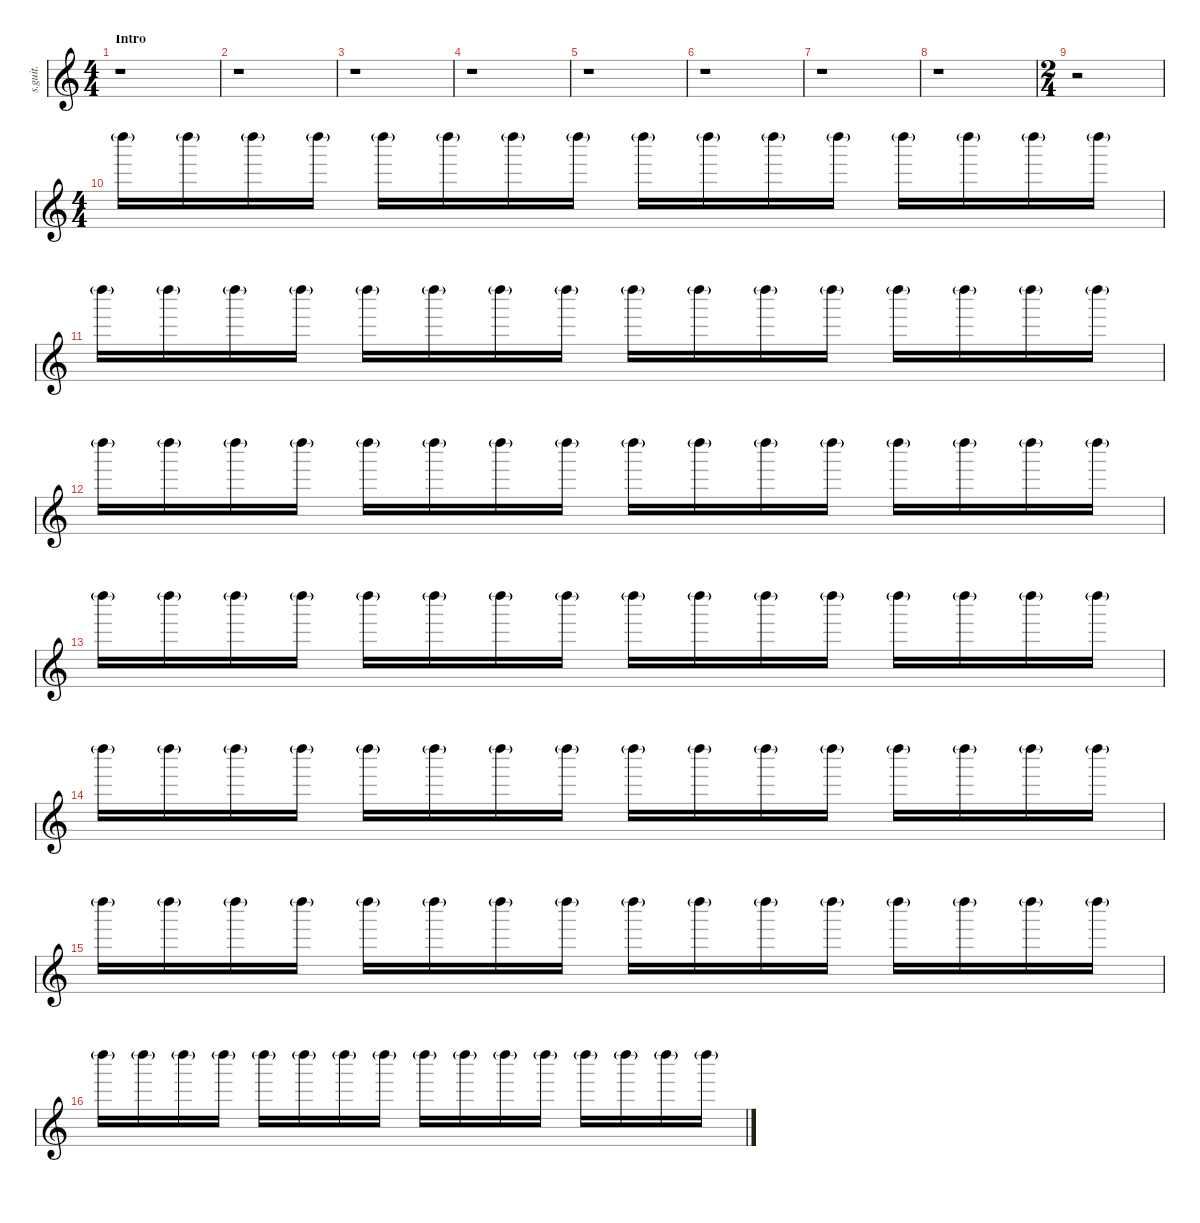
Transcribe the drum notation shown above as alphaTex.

\defaultSystemsLayout 4
\hideDynamics
\bracketExtendMode nobrackets
\track ("Shaker" "s.guit.") {instrument percussion}
\staff {score}
\articulation defaults
\ts (4 4)
\beaming (8 2 2 2 2)
\section ("" "Intro")
\tempo (94 hide)
\clef g2
\ks c
r.1{dy mp} |
\tempo (93 hide)
r.1 |
\tempo (92 hide)
r.1 |
\tempo (96 hide)
r.1 |
\tempo (91 hide)
r.1 |
\tempo (93 hide)
r.1 |
\tempo (92 hide)
r.1 |
\tempo (93 hide)
r.1 |
\ts (2 4)
\beaming (8 2 2 2 2)
r.2 |
\ts (4 4)
\beaming (8 2 2 2 2)
\tempo (88 hide)
"Left Maraca (hit)"{g}.16{lyrics (0 "") lyrics (1 "") lyrics (2 "") lyrics (3 "") lyrics (4 "")} "Left Maraca (hit)"{g}.16{lyrics (0 "") lyrics (1 "") lyrics (2 "") lyrics (3 "") lyrics (4 "") dy p} "Left Maraca (hit)"{g}.16{lyrics (0 "") lyrics (1 "") lyrics (2 "") lyrics (3 "") lyrics (4 "")} "Left Maraca (hit)"{g}.16{lyrics (0 "") lyrics (1 "") lyrics (2 "") lyrics (3 "") lyrics (4 "")} "Left Maraca (hit)"{g}.16{lyrics (0 "") lyrics (1 "") lyrics (2 "") lyrics (3 "") lyrics (4 "") dy mp} "Left Maraca (hit)"{g}.16{lyrics (0 "") lyrics (1 "") lyrics (2 "") lyrics (3 "") lyrics (4 "") dy p} "Left Maraca (hit)"{g}.16{lyrics (0 "") lyrics (1 "") lyrics (2 "") lyrics (3 "") lyrics (4 "")} "Left Maraca (hit)"{g}.16{lyrics (0 "") lyrics (1 "") lyrics (2 "") lyrics (3 "") lyrics (4 "")} "Left Maraca (hit)"{g}.16{lyrics (0 "") lyrics (1 "") lyrics (2 "") lyrics (3 "") lyrics (4 "") dy mp} "Left Maraca (hit)"{g}.16{lyrics (0 "") lyrics (1 "") lyrics (2 "") lyrics (3 "") lyrics (4 "") dy p} "Left Maraca (hit)"{g}.16{lyrics (0 "") lyrics (1 "") lyrics (2 "") lyrics (3 "") lyrics (4 "")} "Left Maraca (hit)"{g}.16{lyrics (0 "") lyrics (1 "") lyrics (2 "") lyrics (3 "") lyrics (4 "")} "Left Maraca (hit)"{g}.16{lyrics (0 "") lyrics (1 "") lyrics (2 "") lyrics (3 "") lyrics (4 "") dy mp} "Left Maraca (hit)"{g}.16{lyrics (0 "") lyrics (1 "") lyrics (2 "") lyrics (3 "") lyrics (4 "") dy p} "Left Maraca (hit)"{g}.16{lyrics (0 "") lyrics (1 "") lyrics (2 "") lyrics (3 "") lyrics (4 "")} "Left Maraca (hit)"{g}.16{lyrics (0 "") lyrics (1 "") lyrics (2 "") lyrics (3 "") lyrics (4 "")} |
\tempo (89 hide)
"Left Maraca (hit)"{g}.16{lyrics (0 "") lyrics (1 "") lyrics (2 "") lyrics (3 "") lyrics (4 "") dy mp} "Left Maraca (hit)"{g}.16{lyrics (0 "") lyrics (1 "") lyrics (2 "") lyrics (3 "") lyrics (4 "") dy p} "Left Maraca (hit)"{g}.16{lyrics (0 "") lyrics (1 "") lyrics (2 "") lyrics (3 "") lyrics (4 "")} "Left Maraca (hit)"{g}.16{lyrics (0 "") lyrics (1 "") lyrics (2 "") lyrics (3 "") lyrics (4 "")} "Left Maraca (hit)"{g}.16{lyrics (0 "") lyrics (1 "") lyrics (2 "") lyrics (3 "") lyrics (4 "") dy mp} "Left Maraca (hit)"{g}.16{lyrics (0 "") lyrics (1 "") lyrics (2 "") lyrics (3 "") lyrics (4 "") dy p} "Left Maraca (hit)"{g}.16{lyrics (0 "") lyrics (1 "") lyrics (2 "") lyrics (3 "") lyrics (4 "")} "Left Maraca (hit)"{g}.16{lyrics (0 "") lyrics (1 "") lyrics (2 "") lyrics (3 "") lyrics (4 "")} "Left Maraca (hit)"{g}.16{lyrics (0 "") lyrics (1 "") lyrics (2 "") lyrics (3 "") lyrics (4 "") dy mp} "Left Maraca (hit)"{g}.16{lyrics (0 "") lyrics (1 "") lyrics (2 "") lyrics (3 "") lyrics (4 "") dy p} "Left Maraca (hit)"{g}.16{lyrics (0 "") lyrics (1 "") lyrics (2 "") lyrics (3 "") lyrics (4 "")} "Left Maraca (hit)"{g}.16{lyrics (0 "") lyrics (1 "") lyrics (2 "") lyrics (3 "") lyrics (4 "")} "Left Maraca (hit)"{g}.16{lyrics (0 "") lyrics (1 "") lyrics (2 "") lyrics (3 "") lyrics (4 "") dy mp} "Left Maraca (hit)"{g}.16{lyrics (0 "") lyrics (1 "") lyrics (2 "") lyrics (3 "") lyrics (4 "") dy p} "Left Maraca (hit)"{g}.16{lyrics (0 "") lyrics (1 "") lyrics (2 "") lyrics (3 "") lyrics (4 "")} "Left Maraca (hit)"{g}.16{lyrics (0 "") lyrics (1 "") lyrics (2 "") lyrics (3 "") lyrics (4 "")} |
"Left Maraca (hit)"{g}.16{lyrics (0 "") lyrics (1 "") lyrics (2 "") lyrics (3 "") lyrics (4 "") dy mp} "Left Maraca (hit)"{g}.16{lyrics (0 "") lyrics (1 "") lyrics (2 "") lyrics (3 "") lyrics (4 "") dy p} "Left Maraca (hit)"{g}.16{lyrics (0 "") lyrics (1 "") lyrics (2 "") lyrics (3 "") lyrics (4 "")} "Left Maraca (hit)"{g}.16{lyrics (0 "") lyrics (1 "") lyrics (2 "") lyrics (3 "") lyrics (4 "")} "Left Maraca (hit)"{g}.16{lyrics (0 "") lyrics (1 "") lyrics (2 "") lyrics (3 "") lyrics (4 "") dy mp} "Left Maraca (hit)"{g}.16{lyrics (0 "") lyrics (1 "") lyrics (2 "") lyrics (3 "") lyrics (4 "") dy p} "Left Maraca (hit)"{g}.16{lyrics (0 "") lyrics (1 "") lyrics (2 "") lyrics (3 "") lyrics (4 "")} "Left Maraca (hit)"{g}.16{lyrics (0 "") lyrics (1 "") lyrics (2 "") lyrics (3 "") lyrics (4 "")} "Left Maraca (hit)"{g}.16{lyrics (0 "") lyrics (1 "") lyrics (2 "") lyrics (3 "") lyrics (4 "") dy mp} "Left Maraca (hit)"{g}.16{lyrics (0 "") lyrics (1 "") lyrics (2 "") lyrics (3 "") lyrics (4 "") dy p} "Left Maraca (hit)"{g}.16{lyrics (0 "") lyrics (1 "") lyrics (2 "") lyrics (3 "") lyrics (4 "")} "Left Maraca (hit)"{g}.16{lyrics (0 "") lyrics (1 "") lyrics (2 "") lyrics (3 "") lyrics (4 "")} "Left Maraca (hit)"{g}.16{lyrics (0 "") lyrics (1 "") lyrics (2 "") lyrics (3 "") lyrics (4 "") dy mp} "Left Maraca (hit)"{g}.16{lyrics (0 "") lyrics (1 "") lyrics (2 "") lyrics (3 "") lyrics (4 "") dy p} "Left Maraca (hit)"{g}.16{lyrics (0 "") lyrics (1 "") lyrics (2 "") lyrics (3 "") lyrics (4 "")} "Left Maraca (hit)"{g}.16{lyrics (0 "") lyrics (1 "") lyrics (2 "") lyrics (3 "") lyrics (4 "")} |
\tempo (90 hide)
"Left Maraca (hit)"{g}.16{lyrics (0 "") lyrics (1 "") lyrics (2 "") lyrics (3 "") lyrics (4 "") dy mp} "Left Maraca (hit)"{g}.16{lyrics (0 "") lyrics (1 "") lyrics (2 "") lyrics (3 "") lyrics (4 "") dy p} "Left Maraca (hit)"{g}.16{lyrics (0 "") lyrics (1 "") lyrics (2 "") lyrics (3 "") lyrics (4 "")} "Left Maraca (hit)"{g}.16{lyrics (0 "") lyrics (1 "") lyrics (2 "") lyrics (3 "") lyrics (4 "")} "Left Maraca (hit)"{g}.16{lyrics (0 "") lyrics (1 "") lyrics (2 "") lyrics (3 "") lyrics (4 "") dy mp} "Left Maraca (hit)"{g}.16{lyrics (0 "") lyrics (1 "") lyrics (2 "") lyrics (3 "") lyrics (4 "") dy p} "Left Maraca (hit)"{g}.16{lyrics (0 "") lyrics (1 "") lyrics (2 "") lyrics (3 "") lyrics (4 "")} "Left Maraca (hit)"{g}.16{lyrics (0 "") lyrics (1 "") lyrics (2 "") lyrics (3 "") lyrics (4 "")} "Left Maraca (hit)"{g}.16{lyrics (0 "") lyrics (1 "") lyrics (2 "") lyrics (3 "") lyrics (4 "") dy mp} "Left Maraca (hit)"{g}.16{lyrics (0 "") lyrics (1 "") lyrics (2 "") lyrics (3 "") lyrics (4 "") dy p} "Left Maraca (hit)"{g}.16{lyrics (0 "") lyrics (1 "") lyrics (2 "") lyrics (3 "") lyrics (4 "")} "Left Maraca (hit)"{g}.16{lyrics (0 "") lyrics (1 "") lyrics (2 "") lyrics (3 "") lyrics (4 "")} "Left Maraca (hit)"{g}.16{lyrics (0 "") lyrics (1 "") lyrics (2 "") lyrics (3 "") lyrics (4 "") dy mp} "Left Maraca (hit)"{g}.16{lyrics (0 "") lyrics (1 "") lyrics (2 "") lyrics (3 "") lyrics (4 "") dy p} "Left Maraca (hit)"{g}.16{lyrics (0 "") lyrics (1 "") lyrics (2 "") lyrics (3 "") lyrics (4 "")} "Left Maraca (hit)"{g}.16{lyrics (0 "") lyrics (1 "") lyrics (2 "") lyrics (3 "") lyrics (4 "")} |
\tempo (89 hide)
"Left Maraca (hit)"{g}.16{lyrics (0 "") lyrics (1 "") lyrics (2 "") lyrics (3 "") lyrics (4 "") dy mp} "Left Maraca (hit)"{g}.16{lyrics (0 "") lyrics (1 "") lyrics (2 "") lyrics (3 "") lyrics (4 "") dy p} "Left Maraca (hit)"{g}.16{lyrics (0 "") lyrics (1 "") lyrics (2 "") lyrics (3 "") lyrics (4 "")} "Left Maraca (hit)"{g}.16{lyrics (0 "") lyrics (1 "") lyrics (2 "") lyrics (3 "") lyrics (4 "")} "Left Maraca (hit)"{g}.16{lyrics (0 "") lyrics (1 "") lyrics (2 "") lyrics (3 "") lyrics (4 "") dy mp} "Left Maraca (hit)"{g}.16{lyrics (0 "") lyrics (1 "") lyrics (2 "") lyrics (3 "") lyrics (4 "") dy p} "Left Maraca (hit)"{g}.16{lyrics (0 "") lyrics (1 "") lyrics (2 "") lyrics (3 "") lyrics (4 "")} "Left Maraca (hit)"{g}.16{lyrics (0 "") lyrics (1 "") lyrics (2 "") lyrics (3 "") lyrics (4 "")} "Left Maraca (hit)"{g}.16{lyrics (0 "") lyrics (1 "") lyrics (2 "") lyrics (3 "") lyrics (4 "") dy mp} "Left Maraca (hit)"{g}.16{lyrics (0 "") lyrics (1 "") lyrics (2 "") lyrics (3 "") lyrics (4 "") dy p} "Left Maraca (hit)"{g}.16{lyrics (0 "") lyrics (1 "") lyrics (2 "") lyrics (3 "") lyrics (4 "")} "Left Maraca (hit)"{g}.16{lyrics (0 "") lyrics (1 "") lyrics (2 "") lyrics (3 "") lyrics (4 "")} "Left Maraca (hit)"{g}.16{lyrics (0 "") lyrics (1 "") lyrics (2 "") lyrics (3 "") lyrics (4 "") dy mp} "Left Maraca (hit)"{g}.16{lyrics (0 "") lyrics (1 "") lyrics (2 "") lyrics (3 "") lyrics (4 "") dy p} "Left Maraca (hit)"{g}.16{lyrics (0 "") lyrics (1 "") lyrics (2 "") lyrics (3 "") lyrics (4 "")} "Left Maraca (hit)"{g}.16{lyrics (0 "") lyrics (1 "") lyrics (2 "") lyrics (3 "") lyrics (4 "")} |
"Left Maraca (hit)"{g}.16{lyrics (0 "") lyrics (1 "") lyrics (2 "") lyrics (3 "") lyrics (4 "") dy mp} "Left Maraca (hit)"{g}.16{lyrics (0 "") lyrics (1 "") lyrics (2 "") lyrics (3 "") lyrics (4 "") dy p} "Left Maraca (hit)"{g}.16{lyrics (0 "") lyrics (1 "") lyrics (2 "") lyrics (3 "") lyrics (4 "")} "Left Maraca (hit)"{g}.16{lyrics (0 "") lyrics (1 "") lyrics (2 "") lyrics (3 "") lyrics (4 "")} "Left Maraca (hit)"{g}.16{lyrics (0 "") lyrics (1 "") lyrics (2 "") lyrics (3 "") lyrics (4 "") dy mp} "Left Maraca (hit)"{g}.16{lyrics (0 "") lyrics (1 "") lyrics (2 "") lyrics (3 "") lyrics (4 "") dy p} "Left Maraca (hit)"{g}.16{lyrics (0 "") lyrics (1 "") lyrics (2 "") lyrics (3 "") lyrics (4 "")} "Left Maraca (hit)"{g}.16{lyrics (0 "") lyrics (1 "") lyrics (2 "") lyrics (3 "") lyrics (4 "")} "Left Maraca (hit)"{g}.16{lyrics (0 "") lyrics (1 "") lyrics (2 "") lyrics (3 "") lyrics (4 "") dy mp} "Left Maraca (hit)"{g}.16{lyrics (0 "") lyrics (1 "") lyrics (2 "") lyrics (3 "") lyrics (4 "") dy p} "Left Maraca (hit)"{g}.16{lyrics (0 "") lyrics (1 "") lyrics (2 "") lyrics (3 "") lyrics (4 "")} "Left Maraca (hit)"{g}.16{lyrics (0 "") lyrics (1 "") lyrics (2 "") lyrics (3 "") lyrics (4 "")} "Left Maraca (hit)"{g}.16{lyrics (0 "") lyrics (1 "") lyrics (2 "") lyrics (3 "") lyrics (4 "") dy mp} "Left Maraca (hit)"{g}.16{lyrics (0 "") lyrics (1 "") lyrics (2 "") lyrics (3 "") lyrics (4 "") dy p} "Left Maraca (hit)"{g}.16{lyrics (0 "") lyrics (1 "") lyrics (2 "") lyrics (3 "") lyrics (4 "")} "Left Maraca (hit)"{g}.16{lyrics (0 "") lyrics (1 "") lyrics (2 "") lyrics (3 "") lyrics (4 "")} |
\tempo (90 hide)
"Left Maraca (hit)"{g}.16{lyrics (0 "") lyrics (1 "") lyrics (2 "") lyrics (3 "") lyrics (4 "") dy mp} "Left Maraca (hit)"{g}.16{lyrics (0 "") lyrics (1 "") lyrics (2 "") lyrics (3 "") lyrics (4 "") dy p} "Left Maraca (hit)"{g}.16{lyrics (0 "") lyrics (1 "") lyrics (2 "") lyrics (3 "") lyrics (4 "")} "Left Maraca (hit)"{g}.16{lyrics (0 "") lyrics (1 "") lyrics (2 "") lyrics (3 "") lyrics (4 "")} "Left Maraca (hit)"{g}.16{lyrics (0 "") lyrics (1 "") lyrics (2 "") lyrics (3 "") lyrics (4 "") dy mp} "Left Maraca (hit)"{g}.16{lyrics (0 "") lyrics (1 "") lyrics (2 "") lyrics (3 "") lyrics (4 "") dy p} "Left Maraca (hit)"{g}.16{lyrics (0 "") lyrics (1 "") lyrics (2 "") lyrics (3 "") lyrics (4 "")} "Left Maraca (hit)"{g}.16{lyrics (0 "") lyrics (1 "") lyrics (2 "") lyrics (3 "") lyrics (4 "")} "Left Maraca (hit)"{g}.16{lyrics (0 "") lyrics (1 "") lyrics (2 "") lyrics (3 "") lyrics (4 "") dy mp} "Left Maraca (hit)"{g}.16{lyrics (0 "") lyrics (1 "") lyrics (2 "") lyrics (3 "") lyrics (4 "") dy p} "Left Maraca (hit)"{g}.16{lyrics (0 "") lyrics (1 "") lyrics (2 "") lyrics (3 "") lyrics (4 "")} "Left Maraca (hit)"{g}.16{lyrics (0 "") lyrics (1 "") lyrics (2 "") lyrics (3 "") lyrics (4 "")} "Left Maraca (hit)"{g}.16{lyrics (0 "") lyrics (1 "") lyrics (2 "") lyrics (3 "") lyrics (4 "") dy mp} "Left Maraca (hit)"{g}.16{lyrics (0 "") lyrics (1 "") lyrics (2 "") lyrics (3 "") lyrics (4 "") dy p} "Left Maraca (hit)"{g}.16{lyrics (0 "") lyrics (1 "") lyrics (2 "") lyrics (3 "") lyrics (4 "")} "Left Maraca (hit)"{g}.16{lyrics (0 "") lyrics (1 "") lyrics (2 "") lyrics (3 "") lyrics (4 "")}
